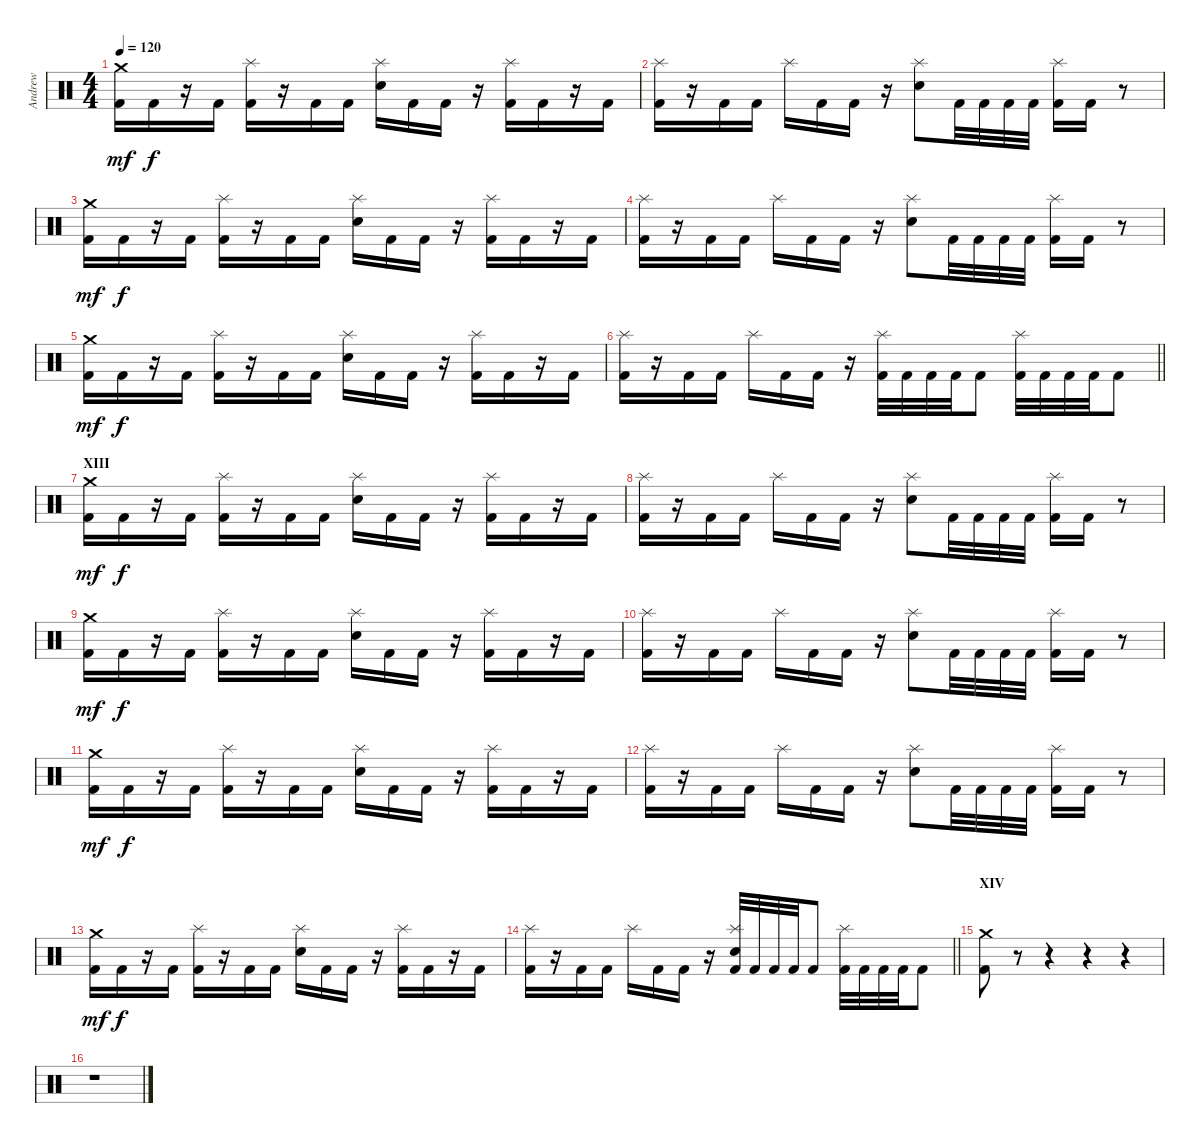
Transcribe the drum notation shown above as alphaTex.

\track ("Andrew" "Andrew") {instrument percussion}
\staff {score}
\articulation defaults
\ts (4 4)
\tempo 120
\clef neutral
\ks c
("Crash medium (hit)" "Kick (hit) 2").16{dy mf} "Kick (hit) 2".16{dy f} r.16 "Kick (hit) 2".16 ("Splash (hit)" "Kick (hit) 2").16 r.16 "Kick (hit) 2".16 "Kick (hit) 2".16 ("Splash (hit)" "Electric Snare (hit)").16 "Kick (hit) 2".16 "Kick (hit) 2".16 r.16 ("Splash (hit)" "Kick (hit) 2").16 "Kick (hit) 2".16 r.16 "Kick (hit) 2".16 |
("Splash (hit)" "Kick (hit) 2").16 r.16 "Kick (hit) 2".16 "Kick (hit) 2".16 "Splash (hit)".16 "Kick (hit) 2".16 "Kick (hit) 2".16 r.16 ("Splash (hit)" "Electric Snare (hit)").8 "Kick (hit) 2".32 "Kick (hit) 2".32 "Kick (hit) 2".32 "Kick (hit) 2".32 ("Splash (hit)" "Kick (hit) 2").16 "Kick (hit) 2".16 r.8 |
("Crash medium (hit)" "Kick (hit) 2").16{dy mf} "Kick (hit) 2".16{dy f} r.16 "Kick (hit) 2".16 ("Splash (hit)" "Kick (hit) 2").16 r.16 "Kick (hit) 2".16 "Kick (hit) 2".16 ("Splash (hit)" "Electric Snare (hit)").16 "Kick (hit) 2".16 "Kick (hit) 2".16 r.16 ("Splash (hit)" "Kick (hit) 2").16 "Kick (hit) 2".16 r.16 "Kick (hit) 2".16 |
("Splash (hit)" "Kick (hit) 2").16 r.16 "Kick (hit) 2".16 "Kick (hit) 2".16 "Splash (hit)".16 "Kick (hit) 2".16 "Kick (hit) 2".16 r.16 ("Splash (hit)" "Electric Snare (hit)").8 "Kick (hit) 2".32 "Kick (hit) 2".32 "Kick (hit) 2".32 "Kick (hit) 2".32 ("Splash (hit)" "Kick (hit) 2").16 "Kick (hit) 2".16 r.8 |
("Crash medium (hit)" "Kick (hit) 2").16{dy mf} "Kick (hit) 2".16{dy f} r.16 "Kick (hit) 2".16 ("Splash (hit)" "Kick (hit) 2").16 r.16 "Kick (hit) 2".16 "Kick (hit) 2".16 ("Splash (hit)" "Electric Snare (hit)").16 "Kick (hit) 2".16 "Kick (hit) 2".16 r.16 ("Splash (hit)" "Kick (hit) 2").16 "Kick (hit) 2".16 r.16 "Kick (hit) 2".16 |
\barLineRight lightlight
("Splash (hit)" "Kick (hit) 2").16 r.16 "Kick (hit) 2".16 "Kick (hit) 2".16 "Splash (hit)".16 "Kick (hit) 2".16 "Kick (hit) 2".16 r.16 ("Splash (hit)" "Kick (hit) 2").32 "Kick (hit) 2".32 "Kick (hit) 2".32 "Kick (hit) 2".32 "Kick (hit) 2".8 ("Splash (hit)" "Kick (hit) 2").32 "Kick (hit) 2".32 "Kick (hit) 2".32 "Kick (hit) 2".32 "Kick (hit) 2".8 |
\section ("" "XIII")
("Crash medium (hit)" "Kick (hit) 2").16{dy mf} "Kick (hit) 2".16{dy f} r.16 "Kick (hit) 2".16 ("Splash (hit)" "Kick (hit) 2").16 r.16 "Kick (hit) 2".16 "Kick (hit) 2".16 ("Splash (hit)" "Electric Snare (hit)").16 "Kick (hit) 2".16 "Kick (hit) 2".16 r.16 ("Splash (hit)" "Kick (hit) 2").16 "Kick (hit) 2".16 r.16 "Kick (hit) 2".16 |
("Splash (hit)" "Kick (hit) 2").16 r.16 "Kick (hit) 2".16 "Kick (hit) 2".16 "Splash (hit)".16 "Kick (hit) 2".16 "Kick (hit) 2".16 r.16 ("Splash (hit)" "Electric Snare (hit)").8 "Kick (hit) 2".32 "Kick (hit) 2".32 "Kick (hit) 2".32 "Kick (hit) 2".32 ("Splash (hit)" "Kick (hit) 2").16 "Kick (hit) 2".16 r.8 |
("Crash medium (hit)" "Kick (hit) 2").16{dy mf} "Kick (hit) 2".16{dy f} r.16 "Kick (hit) 2".16 ("Splash (hit)" "Kick (hit) 2").16 r.16 "Kick (hit) 2".16 "Kick (hit) 2".16 ("Splash (hit)" "Electric Snare (hit)").16 "Kick (hit) 2".16 "Kick (hit) 2".16 r.16 ("Splash (hit)" "Kick (hit) 2").16 "Kick (hit) 2".16 r.16 "Kick (hit) 2".16 |
("Splash (hit)" "Kick (hit) 2").16 r.16 "Kick (hit) 2".16 "Kick (hit) 2".16 "Splash (hit)".16 "Kick (hit) 2".16 "Kick (hit) 2".16 r.16 ("Splash (hit)" "Electric Snare (hit)").8 "Kick (hit) 2".32 "Kick (hit) 2".32 "Kick (hit) 2".32 "Kick (hit) 2".32 ("Splash (hit)" "Kick (hit) 2").16 "Kick (hit) 2".16 r.8 |
("Crash medium (hit)" "Kick (hit) 2").16{dy mf} "Kick (hit) 2".16{dy f} r.16 "Kick (hit) 2".16 ("Splash (hit)" "Kick (hit) 2").16 r.16 "Kick (hit) 2".16 "Kick (hit) 2".16 ("Splash (hit)" "Electric Snare (hit)").16 "Kick (hit) 2".16 "Kick (hit) 2".16 r.16 ("Splash (hit)" "Kick (hit) 2").16 "Kick (hit) 2".16 r.16 "Kick (hit) 2".16 |
("Splash (hit)" "Kick (hit) 2").16 r.16 "Kick (hit) 2".16 "Kick (hit) 2".16 "Splash (hit)".16 "Kick (hit) 2".16 "Kick (hit) 2".16 r.16 ("Splash (hit)" "Electric Snare (hit)").8 "Kick (hit) 2".32 "Kick (hit) 2".32 "Kick (hit) 2".32 "Kick (hit) 2".32 ("Splash (hit)" "Kick (hit) 2").16 "Kick (hit) 2".16 r.8 |
("Crash medium (hit)" "Kick (hit) 2").16{dy mf} "Kick (hit) 2".16{dy f} r.16 "Kick (hit) 2".16 ("Splash (hit)" "Kick (hit) 2").16 r.16 "Kick (hit) 2".16 "Kick (hit) 2".16 ("Splash (hit)" "Electric Snare (hit)").16 "Kick (hit) 2".16 "Kick (hit) 2".16 r.16 ("Splash (hit)" "Kick (hit) 2").16 "Kick (hit) 2".16 r.16 "Kick (hit) 2".16 |
\barLineRight lightlight
("Splash (hit)" "Kick (hit) 2").16 r.16 "Kick (hit) 2".16 "Kick (hit) 2".16 "Splash (hit)".16 "Kick (hit) 2".16 "Kick (hit) 2".16 r.16 ("Splash (hit)" "Electric Snare (hit)" "Kick (hit) 2").32 "Kick (hit) 2".32 "Kick (hit) 2".32 "Kick (hit) 2".32 "Kick (hit) 2".8 ("Splash (hit)" "Kick (hit) 2").32 "Kick (hit) 2".32 "Kick (hit) 2".32 "Kick (hit) 2".32 "Kick (hit) 2".8 |
\section ("" "XIV")
("Crash medium (hit)" "Kick (hit) 2").8 r.8 r.4 r.4 r.4 |
r.1
